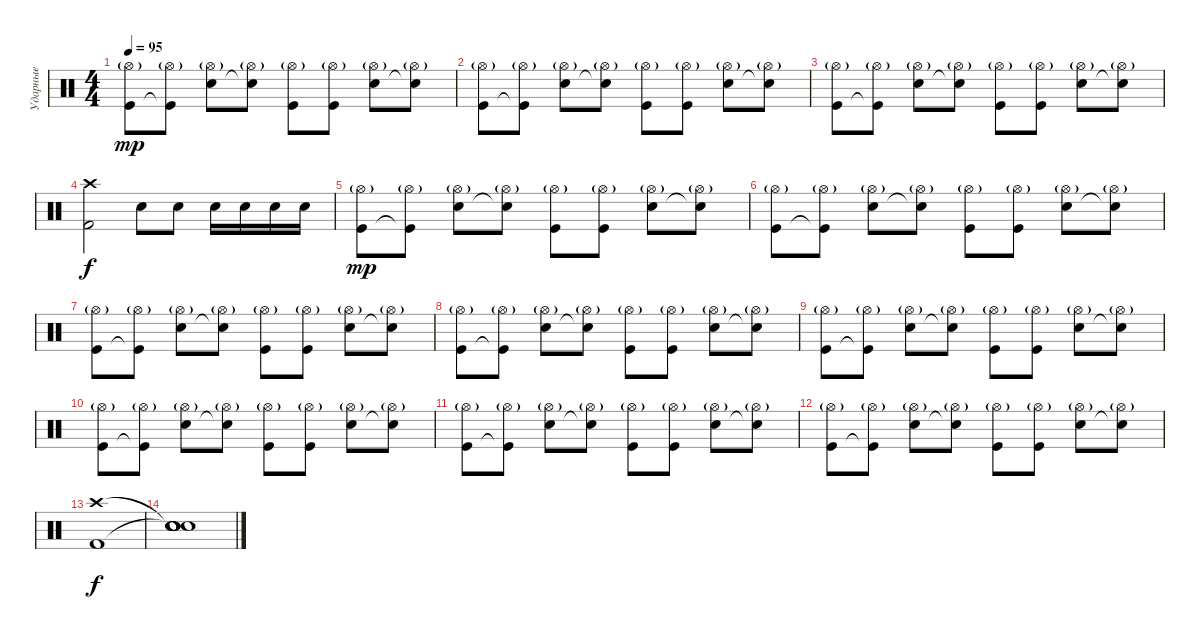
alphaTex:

\track ("Ударные" "Ударные") {instrument percussion}
\staff {score}
\articulation defaults
\ts (4 4)
\tempo 95
\clef neutral
\ks c
("Hi-Hat (open)"{g} "Kick (hit)").8{dy mp} ("Hi-Hat (open)"{g} "Kick (hit)"{t}).8 ("Hi-Hat (open)"{g} "Snare (hit) 2").8 ("Hi-Hat (open)"{g} "Snare (hit) 2"{t}).8 ("Hi-Hat (open)"{g} "Kick (hit)").8 ("Hi-Hat (open)"{g} "Kick (hit)").8 ("Hi-Hat (open)"{g} "Snare (hit) 2").8 ("Hi-Hat (open)"{g} "Snare (hit) 2"{t}).8 |
("Hi-Hat (open)"{g} "Kick (hit)").8 ("Hi-Hat (open)"{g} "Kick (hit)"{t}).8 ("Hi-Hat (open)"{g} "Snare (hit) 2").8 ("Hi-Hat (open)"{g} "Snare (hit) 2"{t}).8 ("Hi-Hat (open)"{g} "Kick (hit)").8 ("Hi-Hat (open)"{g} "Kick (hit)").8 ("Hi-Hat (open)"{g} "Snare (hit) 2").8 ("Hi-Hat (open)"{g} "Snare (hit) 2"{t}).8 |
("Hi-Hat (open)"{g} "Kick (hit)").8 ("Hi-Hat (open)"{g} "Kick (hit)"{t}).8 ("Hi-Hat (open)"{g} "Snare (hit) 2").8 ("Hi-Hat (open)"{g} "Snare (hit) 2"{t}).8 ("Hi-Hat (open)"{g} "Kick (hit)").8 ("Hi-Hat (open)"{g} "Kick (hit)").8 ("Hi-Hat (open)"{g} "Snare (hit) 2").8 ("Hi-Hat (open)"{g} "Snare (hit) 2"{t}).8 |
("Crash high (hit)" "Kick (hit) 2").2{dy f} "Snare (hit) 2".8 "Snare (hit) 2".8 "Snare (hit) 2".16 "Snare (hit) 2".16 "Snare (hit) 2".16 "Snare (hit) 2".16 |
("Hi-Hat (open)"{g} "Kick (hit)").8{dy mp} ("Hi-Hat (open)"{g} "Kick (hit)"{t}).8 ("Hi-Hat (open)"{g} "Snare (hit) 2").8 ("Hi-Hat (open)"{g} "Snare (hit) 2"{t}).8 ("Hi-Hat (open)"{g} "Kick (hit)").8 ("Hi-Hat (open)"{g} "Kick (hit)").8 ("Hi-Hat (open)"{g} "Snare (hit) 2").8 ("Hi-Hat (open)"{g} "Snare (hit) 2"{t}).8 |
("Hi-Hat (open)"{g} "Kick (hit)").8 ("Hi-Hat (open)"{g} "Kick (hit)"{t}).8 ("Hi-Hat (open)"{g} "Snare (hit) 2").8 ("Hi-Hat (open)"{g} "Snare (hit) 2"{t}).8 ("Hi-Hat (open)"{g} "Kick (hit)").8 ("Hi-Hat (open)"{g} "Kick (hit)").8 ("Hi-Hat (open)"{g} "Snare (hit) 2").8 ("Hi-Hat (open)"{g} "Snare (hit) 2"{t}).8 |
("Hi-Hat (open)"{g} "Kick (hit)").8 ("Hi-Hat (open)"{g} "Kick (hit)"{t}).8 ("Hi-Hat (open)"{g} "Snare (hit) 2").8 ("Hi-Hat (open)"{g} "Snare (hit) 2"{t}).8 ("Hi-Hat (open)"{g} "Kick (hit)").8 ("Hi-Hat (open)"{g} "Kick (hit)").8 ("Hi-Hat (open)"{g} "Snare (hit) 2").8 ("Hi-Hat (open)"{g} "Snare (hit) 2"{t}).8 |
("Hi-Hat (open)"{g} "Kick (hit)").8 ("Hi-Hat (open)"{g} "Kick (hit)"{t}).8 ("Hi-Hat (open)"{g} "Snare (hit) 2").8 ("Hi-Hat (open)"{g} "Snare (hit) 2"{t}).8 ("Hi-Hat (open)"{g} "Kick (hit)").8 ("Hi-Hat (open)"{g} "Kick (hit)").8 ("Hi-Hat (open)"{g} "Snare (hit) 2").8 ("Hi-Hat (open)"{g} "Snare (hit) 2"{t}).8 |
("Hi-Hat (open)"{g} "Kick (hit)").8 ("Hi-Hat (open)"{g} "Kick (hit)"{t}).8 ("Hi-Hat (open)"{g} "Snare (hit) 2").8 ("Hi-Hat (open)"{g} "Snare (hit) 2"{t}).8 ("Hi-Hat (open)"{g} "Kick (hit)").8 ("Hi-Hat (open)"{g} "Kick (hit)").8 ("Hi-Hat (open)"{g} "Snare (hit) 2").8 ("Hi-Hat (open)"{g} "Snare (hit) 2"{t}).8 |
("Hi-Hat (open)"{g} "Kick (hit)").8 ("Hi-Hat (open)"{g} "Kick (hit)"{t}).8 ("Hi-Hat (open)"{g} "Snare (hit) 2").8 ("Hi-Hat (open)"{g} "Snare (hit) 2"{t}).8 ("Hi-Hat (open)"{g} "Kick (hit)").8 ("Hi-Hat (open)"{g} "Kick (hit)").8 ("Hi-Hat (open)"{g} "Snare (hit) 2").8 ("Hi-Hat (open)"{g} "Snare (hit) 2"{t}).8 |
("Hi-Hat (open)"{g} "Kick (hit)").8 ("Hi-Hat (open)"{g} "Kick (hit)"{t}).8 ("Hi-Hat (open)"{g} "Snare (hit) 2").8 ("Hi-Hat (open)"{g} "Snare (hit) 2"{t}).8 ("Hi-Hat (open)"{g} "Kick (hit)").8 ("Hi-Hat (open)"{g} "Kick (hit)").8 ("Hi-Hat (open)"{g} "Snare (hit) 2").8 ("Hi-Hat (open)"{g} "Snare (hit) 2"{t}).8 |
("Hi-Hat (open)"{g} "Kick (hit)").8 ("Hi-Hat (open)"{g} "Kick (hit)"{t}).8 ("Hi-Hat (open)"{g} "Snare (hit) 2").8 ("Hi-Hat (open)"{g} "Snare (hit) 2"{t}).8 ("Hi-Hat (open)"{g} "Kick (hit)").8 ("Hi-Hat (open)"{g} "Kick (hit)").8 ("Hi-Hat (open)"{g} "Snare (hit) 2").8 ("Hi-Hat (open)"{g} "Snare (hit) 2"{t}).8 |
("Crash high (hit)" "Kick (hit) 2").1{dy f} |
("Snare (hit)"{t} "Snare (hit)"{t} "Snare (hit)" "Snare (hit)" "Snare (hit)" "Snare (hit)").1
